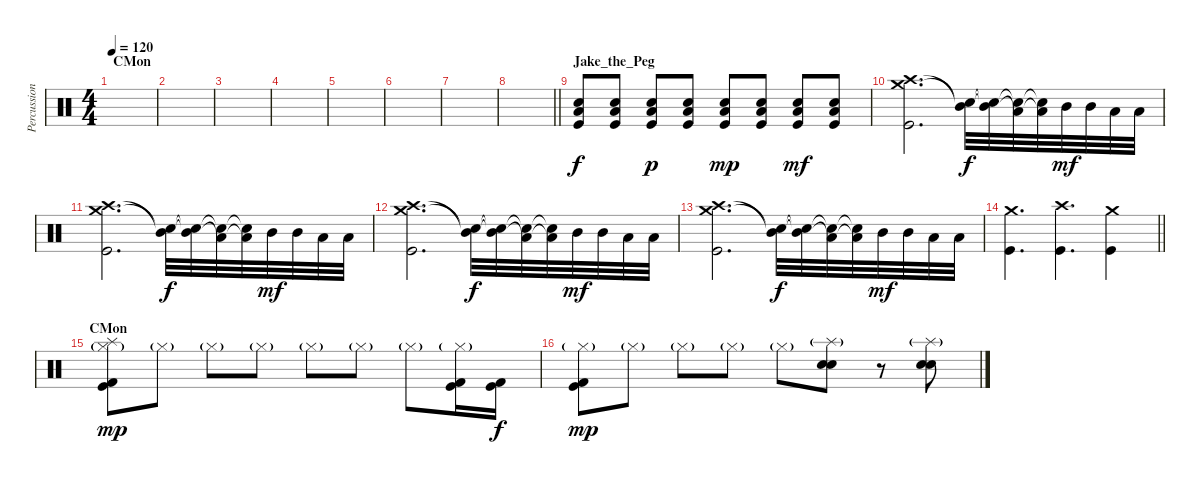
\track ("Percussion" "Percussion") {instrument percussion}
\staff {score}
\articulation defaults
\ts (4 4)
\section ("" "CMon")
\tempo 120
\clef neutral
\ks c
|
|
|
|
|
|
|
\barLineRight lightlight
|
\section ("" "Jake_the_Peg")
("Low Tom (hit)" "Electric Snare (hit)" "Kick (hit)").8 ("Low Tom (hit)" "Electric Snare (hit)" "Kick (hit)").8 ("Low Tom (hit)" "Electric Snare (hit)" "Kick (hit)").8{dy p} ("Low Tom (hit)" "Electric Snare (hit)" "Kick (hit)").8 ("Low Tom (hit)" "Electric Snare (hit)" "Kick (hit)").8{dy mp} ("Low Tom (hit)" "Electric Snare (hit)" "Kick (hit)").8 ("Low Tom (hit)" "Electric Snare (hit)" "Kick (hit)").8{dy mf} ("Low Tom (hit)" "Electric Snare (hit)" "Kick (hit)").8 |
("Crash medium (hit)" "Crash high (hit)" "Kick (hit)").2{d} ("Snare (hit)"{t} "Mid Tom (hit)"{t}).32{dy f} ("Snare (hit)"{t} "Mid Tom (hit)"{t}).32 ("Snare (hit)"{t} "Low Tom (hit)"{t}).32 ("Snare (hit)"{t} "Low Tom (hit)"{t}).32 "Mid Tom (hit)".32{dy mf} "Mid Tom (hit)".32 "Low Tom (hit)".32 "Low Tom (hit)".32 |
("Crash medium (hit)" "Crash high (hit)" "Kick (hit)").2{d} ("Snare (hit)"{t} "Mid Tom (hit)"{t}).32{dy f} ("Snare (hit)"{t} "Mid Tom (hit)"{t}).32 ("Snare (hit)"{t} "Low Tom (hit)"{t}).32 ("Snare (hit)"{t} "Low Tom (hit)"{t}).32 "Mid Tom (hit)".32{dy mf} "Mid Tom (hit)".32 "Low Tom (hit)".32 "Low Tom (hit)".32 |
("Crash medium (hit)" "Crash high (hit)" "Kick (hit)").2{d} ("Snare (hit)"{t} "Mid Tom (hit)"{t}).32{dy f} ("Snare (hit)"{t} "Mid Tom (hit)"{t}).32 ("Snare (hit)"{t} "Low Tom (hit)"{t}).32 ("Snare (hit)"{t} "Low Tom (hit)"{t}).32 "Mid Tom (hit)".32{dy mf} "Mid Tom (hit)".32 "Low Tom (hit)".32 "Low Tom (hit)".32 |
("Crash medium (hit)" "Crash high (hit)" "Kick (hit)").2{d} ("Snare (hit)"{t} "Mid Tom (hit)"{t}).32{dy f} ("Snare (hit)"{t} "Mid Tom (hit)"{t}).32 ("Snare (hit)"{t} "Low Tom (hit)"{t}).32 ("Snare (hit)"{t} "Low Tom (hit)"{t}).32 "Mid Tom (hit)".32{dy mf} "Mid Tom (hit)".32 "Low Tom (hit)".32 "Low Tom (hit)".32 |
\barLineRight lightlight
("Crash medium (hit)" "Kick (hit)").4{d} ("Crash high (hit)" "Kick (hit)").4{d} ("Crash medium (hit)" "Kick (hit)").4 |
\section ("" "CMon")
("Hi-Hat (closed)"{g} "Splash (hit)" "Kick (hit) 2" "Kick (hit)").8{dy mp} "Hi-Hat (closed)"{g}.8 "Hi-Hat (closed)"{g}.8 "Hi-Hat (closed)"{g}.8 "Hi-Hat (closed)"{g}.8 "Hi-Hat (closed)"{g}.8 "Hi-Hat (closed)"{g}.8 ("Hi-Hat (closed)"{g} "Kick (hit) 2" "Kick (hit)").16 ("Kick (hit) 2" "Kick (hit)").16{dy f} |
("Hi-Hat (closed)"{g} "Kick (hit) 2" "Kick (hit)").8{dy mp} "Hi-Hat (closed)"{g}.8 "Hi-Hat (closed)"{g}.8 "Hi-Hat (closed)"{g}.8 "Hi-Hat (closed)"{g}.8 ("Splash (hit)"{g} "Electric Snare (hit)" "Snare (hit) 2").8 r.8 ("Splash (hit)"{g} "Electric Snare (hit)" "Snare (hit) 2").8
